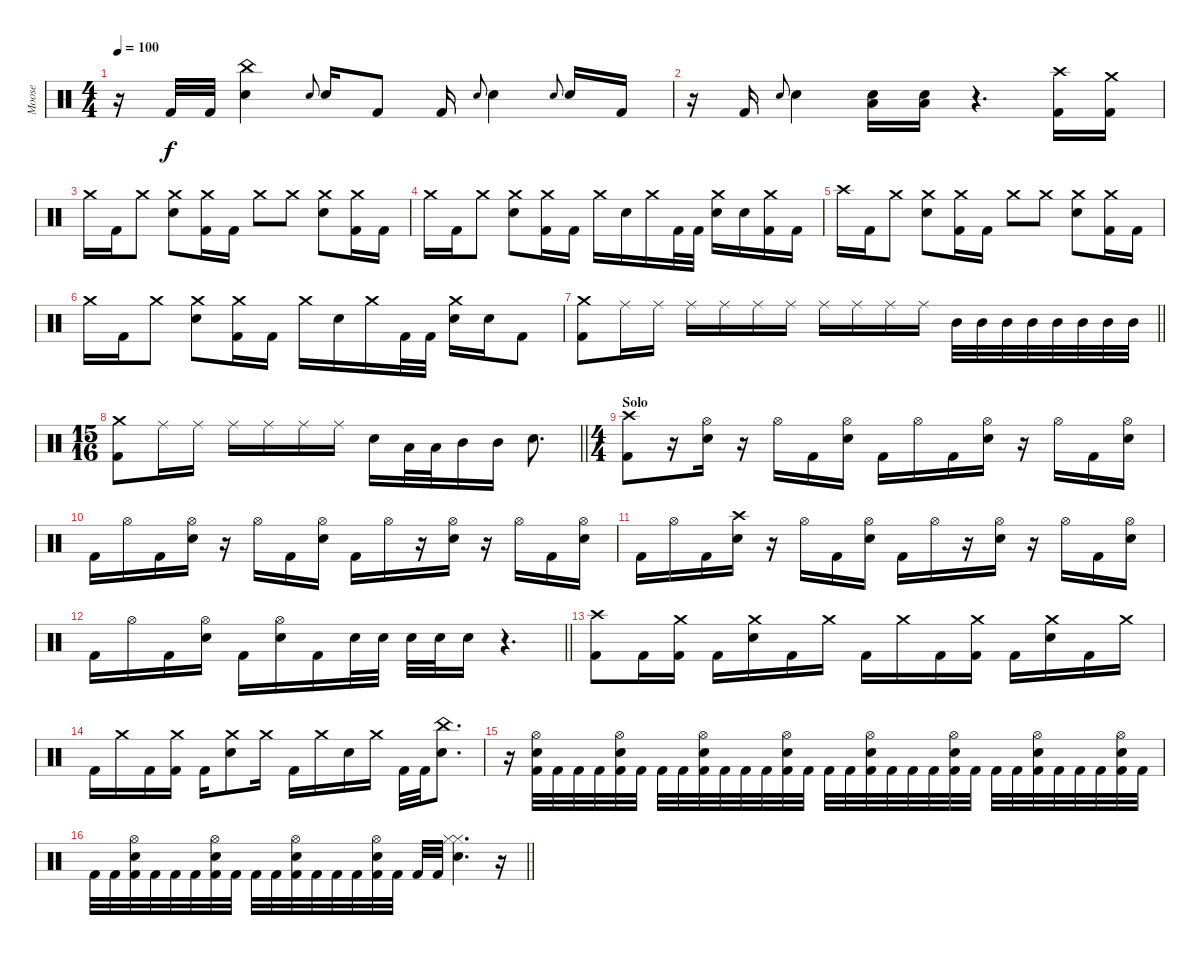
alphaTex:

\track ("Moose" "Moose") {instrument percussion}
\staff {score}
\articulation defaults
\ts (4 4)
\tempo 100
\clef neutral
\ks c
r.16{dy f} "Kick (hit) 2".32 "Kick (hit) 2".32 ("China (hit)" "Electric Snare (hit)").4 "Electric Snare (hit)".8{gr onbeat} "Electric Snare (hit)".16 "Kick (hit) 2".8 "Kick (hit) 2".16 "Electric Snare (hit)".8{gr onbeat} "Electric Snare (hit)".4 "Electric Snare (hit)".8{gr onbeat} "Electric Snare (hit)".16 "Kick (hit) 2".16 |
r.16 "Kick (hit) 2".16 "Electric Snare (hit)".8{gr onbeat} "Electric Snare (hit)".4 ("Low Tom (hit)" "Electric Snare (hit)").16 ("Low Tom (hit)" "Electric Snare (hit)").16 r.4{d} ("Crash high (hit)" "Kick (hit) 2").16 ("Crash medium (hit)" "Kick (hit) 2").16 |
"Crash medium (hit)".16 "Kick (hit) 2".16 "Crash medium (hit)".8 ("Crash medium (hit)" "Electric Snare (hit)").8 ("Crash medium (hit)" "Kick (hit) 2").16 "Kick (hit) 2".16 "Crash medium (hit)".8 "Crash medium (hit)".8 ("Crash medium (hit)" "Electric Snare (hit)").8 ("Crash medium (hit)" "Kick (hit) 2").16 "Kick (hit) 2".16 |
"Crash medium (hit)".16 "Kick (hit) 2".16 "Crash medium (hit)".8 ("Crash medium (hit)" "Electric Snare (hit)").8 ("Crash medium (hit)" "Kick (hit) 2").16 "Kick (hit) 2".16 "Crash medium (hit)".16 "Electric Snare (hit)".16 "Crash medium (hit)".16 "Kick (hit) 2".32 "Kick (hit) 2".32 ("Crash medium (hit)" "Electric Snare (hit)").16 "Electric Snare (hit)".16 ("Crash medium (hit)" "Kick (hit) 2").16 "Kick (hit) 2".16 |
"Crash high (hit)".16 "Kick (hit) 2".16 "Crash medium (hit)".8 ("Crash medium (hit)" "Electric Snare (hit)").8 ("Crash medium (hit)" "Kick (hit) 2").16 "Kick (hit) 2".16 "Crash medium (hit)".8 "Crash medium (hit)".8 ("Crash medium (hit)" "Electric Snare (hit)").8 ("Crash medium (hit)" "Kick (hit) 2").16 "Kick (hit) 2".16 |
"Crash medium (hit)".16 "Kick (hit) 2".16 "Crash medium (hit)".8 ("Crash medium (hit)" "Electric Snare (hit)").8 ("Crash medium (hit)" "Kick (hit) 2").16 "Kick (hit) 2".16 "Crash medium (hit)".16 "Electric Snare (hit)".16 "Crash medium (hit)".16 "Kick (hit) 2".32 "Kick (hit) 2".32 ("Crash medium (hit)" "Electric Snare (hit)").16 "Electric Snare (hit)".16 "Kick (hit) 2".8 |
\barLineRight lightlight
("Crash medium (hit)" "Kick (hit) 2").8 "Ride (middle)".16 "Ride (middle)".16 "Ride (middle)".16 "Ride (middle)".16 "Ride (middle)".16 "Ride (middle)".16 "Ride (middle)".16 "Ride (middle)".16 "Ride (middle)".16 "Ride (middle)".16 "Mid Tom (hit)".32 "Mid Tom (hit)".32 "Mid Tom (hit)".32 "Mid Tom (hit)".32 "Mid Tom (hit)".32 "Mid Tom (hit)".32 "Mid Tom (hit)".32 "Mid Tom (hit)".32 |
\ts (15 16)
\barLineRight lightlight
("Crash medium (hit)" "Kick (hit) 2").8 "Ride (middle)".16 "Ride (middle)".16 "Ride (middle)".16 "Ride (middle)".16 "Ride (middle)".16 "Ride (middle)".16 "Electric Snare (hit)".16 "Low Tom (hit)".32 "Low Tom (hit)".32 "Mid Tom (hit)".16 "Mid Tom (hit)".16 "Electric Snare (hit)".8{d} |
\ts (4 4)
\section ("" "Solo")
("Crash high (hit)" "Kick (hit) 2").8 r.16 ("Hi-Hat (open)" "Electric Snare (hit)").16 r.16 "Hi-Hat (open)".16 "Kick (hit) 2".16 ("Hi-Hat (open)" "Electric Snare (hit)").16 "Kick (hit) 2".16 "Hi-Hat (open)".16 "Kick (hit) 2".16 ("Hi-Hat (open)" "Electric Snare (hit)").16 r.16 "Hi-Hat (open)".16 "Kick (hit) 2".16 ("Hi-Hat (open)" "Electric Snare (hit)").16 |
"Kick (hit) 2".16 "Hi-Hat (open)".16 "Kick (hit) 2".16 ("Hi-Hat (open)" "Electric Snare (hit)").16 r.16 "Hi-Hat (open)".16 "Kick (hit) 2".16 ("Hi-Hat (open)" "Electric Snare (hit)").16 "Kick (hit) 2".16 "Hi-Hat (open)".16 r.16 ("Hi-Hat (open)" "Electric Snare (hit)").16 r.16 "Hi-Hat (open)".16 "Kick (hit) 2".16 ("Hi-Hat (open)" "Electric Snare (hit)").16 |
"Kick (hit) 2".16 "Hi-Hat (open)".16 "Kick (hit) 2".16 ("Crash high (hit)" "Electric Snare (hit)").16 r.16 "Hi-Hat (open)".16 "Kick (hit) 2".16 ("Hi-Hat (open)" "Electric Snare (hit)").16 "Kick (hit) 2".16 "Hi-Hat (open)".16 r.16 ("Hi-Hat (open)" "Electric Snare (hit)").16 r.16 "Hi-Hat (open)".16 "Kick (hit) 2".16 ("Hi-Hat (open)" "Electric Snare (hit)").16 |
\barLineRight lightlight "Kick (hit) 2".16 "Hi-Hat (open)".16 "Kick (hit) 2".16
("Hi-Hat (open)" "Electric Snare (hit)").16 "Kick (hit) 2".16 ("Hi-Hat (open)" "Electric Snare (hit)").16 "Kick (hit) 2".16 "Electric Snare (hit)".32 "Electric Snare (hit)".32 "Electric Snare (hit)".32 "Electric Snare (hit)".32 "Electric Snare (hit)".16 r.4{d} |
("Crash high (hit)" "Kick (hit) 2").8 "Kick (hit) 2".16 ("Crash medium (hit)" "Kick (hit) 2").16 "Kick (hit) 2".16 ("Crash medium (hit)" "Electric Snare (hit)").16 "Kick (hit) 2".16 "Crash medium (hit)".16 "Kick (hit) 2".16 "Crash medium (hit)".16 "Kick (hit) 2".16 ("Crash medium (hit)" "Kick (hit) 2").16 "Kick (hit) 2".16 ("Crash medium (hit)" "Electric Snare (hit)").16 "Kick (hit) 2".16 "Crash medium (hit)".16 |
"Kick (hit) 2".16 "Crash medium (hit)".16 "Kick (hit) 2".16 ("Crash medium (hit)" "Kick (hit) 2").16 "Kick (hit) 2".16 ("Crash medium (hit)" "Electric Snare (hit)").8 "Crash medium (hit)".16 "Kick (hit) 2".16 "Crash medium (hit)".16 "Electric Snare (hit)".16 "Crash medium (hit)".16 "Kick (hit) 2".32 "Kick (hit) 2".32 ("China (hit)" "Electric Snare (hit)").8{d} |
r.16 ("Hi-Hat (open)" "Electric Snare (hit)" "Kick (hit) 2").32 "Kick (hit) 2".32 "Kick (hit) 2".32 "Kick (hit) 2".32 ("Hi-Hat (open)" "Electric Snare (hit)" "Kick (hit) 2").32 "Kick (hit) 2".32 "Kick (hit) 2".32 "Kick (hit) 2".32 ("Hi-Hat (open)" "Electric Snare (hit)" "Kick (hit) 2").32 "Kick (hit) 2".32 "Kick (hit) 2".32 "Kick (hit) 2".32 ("Hi-Hat (open)" "Electric Snare (hit)" "Kick (hit) 2").32 "Kick (hit) 2".32 "Kick (hit) 2".32 "Kick (hit) 2".32 ("Hi-Hat (open)" "Electric Snare (hit)" "Kick (hit) 2").32 "Kick (hit) 2".32 "Kick (hit) 2".32 "Kick (hit) 2".32 ("Hi-Hat (open)" "Electric Snare (hit)" "Kick (hit) 2").32 "Kick (hit) 2".32 "Kick (hit) 2".32 "Kick (hit) 2".32 ("Hi-Hat (open)" "Electric Snare (hit)" "Kick (hit) 2").32 "Kick (hit) 2".32 "Kick (hit) 2".32 "Kick (hit) 2".32 ("Hi-Hat (open)" "Electric Snare (hit)" "Kick (hit) 2").32 "Kick (hit) 2".32 |
\barLineRight lightlight "Kick (hit) 2".32 "Kick (hit) 2".32
("Hi-Hat (open)" "Electric Snare (hit)" "Kick (hit) 2").32 "Kick (hit) 2".32 "Kick (hit) 2".32 "Kick (hit) 2".32 ("Hi-Hat (open)" "Electric Snare (hit)" "Kick (hit) 2").32 "Kick (hit) 2".32 "Kick (hit) 2".32 "Kick (hit) 2".32 ("Hi-Hat (open)" "Electric Snare (hit)" "Kick (hit) 2").32 "Kick (hit) 2".32 "Kick (hit) 2".32 "Kick (hit) 2".32 ("Hi-Hat (open)" "Electric Snare (hit)" "Kick (hit) 2").32 "Kick (hit) 2".32 "Kick (hit) 2".32 "Kick (hit) 2".32 ("Hi-Hat (closed)" "Hi-Hat (closed)" "Electric Snare (hit)").4{d} r.16
